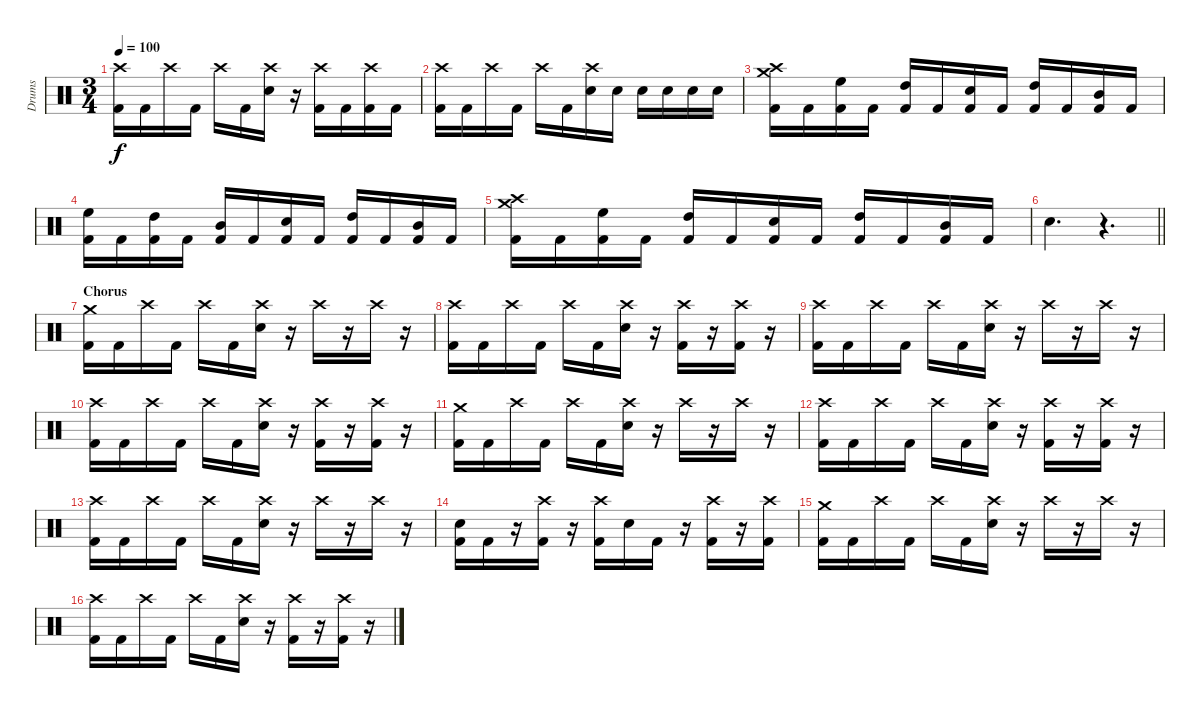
\track ("Drums" "Drums") {instrument percussion}
\staff {score}
\articulation defaults
\ts (3 4)
\tempo 100
\clef neutral
\ks c
("Crash high (hit)" "Kick (hit) 2").16{dy f} "Kick (hit) 2".16 "Crash high (hit)".16 "Kick (hit) 2".16 "Crash high (hit)".16 "Kick (hit) 2".16 ("Crash high (hit)" "Electric Snare (hit)").16 r.16 ("Crash high (hit)" "Kick (hit) 2").16 "Kick (hit) 2".16 ("Crash high (hit)" "Kick (hit) 2").16 "Kick (hit) 2".16 |
("Crash high (hit)" "Kick (hit) 2").16 "Kick (hit) 2".16 "Crash high (hit)".16 "Kick (hit) 2".16 "Crash high (hit)".16 "Kick (hit) 2".16 ("Crash high (hit)" "Electric Snare (hit)").16 "Electric Snare (hit)".16 "Electric Snare (hit)".16 "Electric Snare (hit)".16 "Electric Snare (hit)".16 "Electric Snare (hit)".16 |
("Crash high (hit)" "Crash medium (hit)" "Kick (hit) 2").16 "Kick (hit) 2".16 ("High Floor Tom (hit)" "Kick (hit) 2").16 "Kick (hit) 2".16 ("High Tom (hit)" "Kick (hit) 2").16 "Kick (hit) 2".16 ("Electric Snare (hit)" "Kick (hit) 2").16 "Kick (hit) 2".16 ("High Tom (hit)" "Kick (hit) 2").16 "Kick (hit) 2".16 ("Mid Tom (hit)" "Kick (hit) 2").16 "Kick (hit) 2".16 |
("High Floor Tom (hit)" "Kick (hit) 2").16 "Kick (hit) 2".16 ("High Tom (hit)" "Kick (hit) 2").16 "Kick (hit) 2".16 ("Mid Tom (hit)" "Kick (hit) 2").16 "Kick (hit) 2".16 ("Electric Snare (hit)" "Kick (hit) 2").16 "Kick (hit) 2".16 ("High Tom (hit)" "Kick (hit) 2").16 "Kick (hit) 2".16 ("Mid Tom (hit)" "Kick (hit) 2").16 "Kick (hit) 2".16 |
("Crash high (hit)" "Crash medium (hit)" "Kick (hit) 2").16 "Kick (hit) 2".16 ("High Floor Tom (hit)" "Kick (hit) 2").16 "Kick (hit) 2".16 ("High Tom (hit)" "Kick (hit) 2").16 "Kick (hit) 2".16 ("Electric Snare (hit)" "Kick (hit) 2").16 "Kick (hit) 2".16 ("High Tom (hit)" "Kick (hit) 2").16 "Kick (hit) 2".16 ("Mid Tom (hit)" "Kick (hit) 2").16 "Kick (hit) 2".16 |
\barLineRight lightlight "Electric Snare (hit)".4{d}
r.4{d} |
\section ("" "Chorus")
("Crash medium (hit)" "Kick (hit) 2").16 "Kick (hit) 2".16 "Crash high (hit)".16 "Kick (hit) 2".16 "Crash high (hit)".16 "Kick (hit) 2".16 ("Crash high (hit)" "Electric Snare (hit)").16 r.16 "Crash high (hit)".16 r.16 "Crash high (hit)".16 r.16 |
("Crash high (hit)" "Kick (hit) 2").16 "Kick (hit) 2".16 "Crash high (hit)".16 "Kick (hit) 2".16 "Crash high (hit)".16 "Kick (hit) 2".16 ("Crash high (hit)" "Electric Snare (hit)").16 r.16 ("Crash high (hit)" "Kick (hit) 2").16 r.16 ("Crash high (hit)" "Kick (hit) 2").16 r.16 |
("Crash high (hit)" "Kick (hit) 2").16 "Kick (hit) 2".16 "Crash high (hit)".16 "Kick (hit) 2".16 "Crash high (hit)".16 "Kick (hit) 2".16 ("Crash high (hit)" "Electric Snare (hit)").16 r.16 "Crash high (hit)".16 r.16 "Crash high (hit)".16 r.16 |
("Crash high (hit)" "Kick (hit) 2").16 "Kick (hit) 2".16 "Crash high (hit)".16 "Kick (hit) 2".16 "Crash high (hit)".16 "Kick (hit) 2".16 ("Crash high (hit)" "Electric Snare (hit)").16 r.16 ("Crash high (hit)" "Kick (hit) 2").16 r.16 ("Crash high (hit)" "Kick (hit) 2").16 r.16 |
("Crash medium (hit)" "Kick (hit) 2").16 "Kick (hit) 2".16 "Crash high (hit)".16 "Kick (hit) 2".16 "Crash high (hit)".16 "Kick (hit) 2".16 ("Crash high (hit)" "Electric Snare (hit)").16 r.16 "Crash high (hit)".16 r.16 "Crash high (hit)".16 r.16 |
("Crash high (hit)" "Kick (hit) 2").16 "Kick (hit) 2".16 "Crash high (hit)".16 "Kick (hit) 2".16 "Crash high (hit)".16 "Kick (hit) 2".16 ("Crash high (hit)" "Electric Snare (hit)").16 r.16 ("Crash high (hit)" "Kick (hit) 2").16 r.16 ("Crash high (hit)" "Kick (hit) 2").16 r.16 |
("Crash high (hit)" "Kick (hit) 2").16 "Kick (hit) 2".16 "Crash high (hit)".16 "Kick (hit) 2".16 "Crash high (hit)".16 "Kick (hit) 2".16 ("Crash high (hit)" "Electric Snare (hit)").16 r.16 "Crash high (hit)".16 r.16 "Crash high (hit)".16 r.16 |
("Electric Snare (hit)" "Kick (hit) 2").16 "Kick (hit) 2".16 r.16 ("Crash high (hit)" "Kick (hit) 2").16 r.16 ("Crash high (hit)" "Kick (hit) 2").16 "Electric Snare (hit)".16 "Kick (hit) 2".16 r.16 ("Crash high (hit)" "Kick (hit) 2").16 r.16 ("Crash high (hit)" "Kick (hit) 2").16 |
("Crash medium (hit)" "Kick (hit) 2").16 "Kick (hit) 2".16 "Crash high (hit)".16 "Kick (hit) 2".16 "Crash high (hit)".16 "Kick (hit) 2".16 ("Crash high (hit)" "Electric Snare (hit)").16 r.16 "Crash high (hit)".16 r.16 "Crash high (hit)".16 r.16 |
("Crash high (hit)" "Kick (hit) 2").16 "Kick (hit) 2".16 "Crash high (hit)".16 "Kick (hit) 2".16 "Crash high (hit)".16 "Kick (hit) 2".16 ("Crash high (hit)" "Electric Snare (hit)").16 r.16 ("Crash high (hit)" "Kick (hit) 2").16 r.16 ("Crash high (hit)" "Kick (hit) 2").16 r.16
